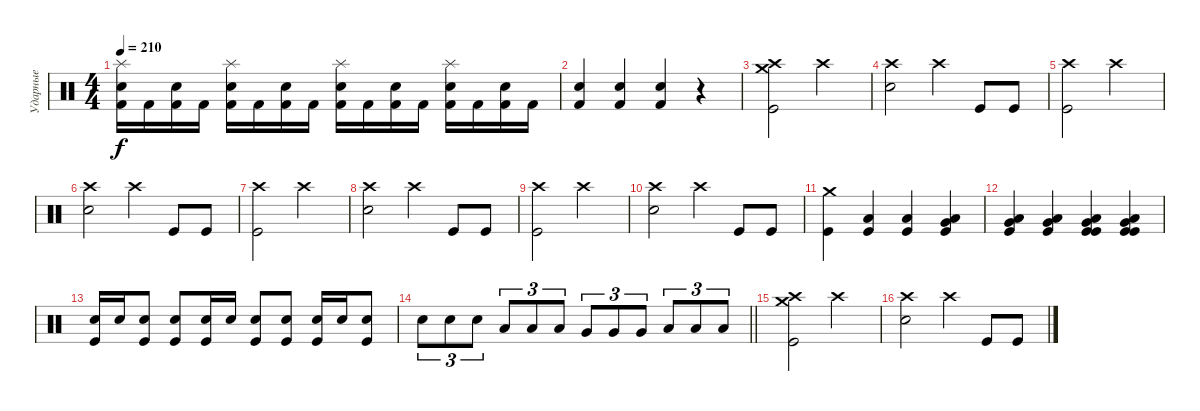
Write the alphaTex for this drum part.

\track ("Ударные" "Ударные") {instrument percussion}
\staff {score}
\articulation defaults
\ts (4 4)
\tempo 210
\clef neutral
\ks c
("Kick (hit) 2" "Electric Snare (hit)" "Splash (hit)").16{dy f} "Kick (hit) 2".16 ("Kick (hit) 2" "Electric Snare (hit)").16 "Kick (hit) 2".16 ("Kick (hit) 2" "Electric Snare (hit)" "Splash (hit)").16 "Kick (hit) 2".16 ("Kick (hit) 2" "Electric Snare (hit)").16 "Kick (hit) 2".16 ("Kick (hit) 2" "Electric Snare (hit)" "Splash (hit)").16 "Kick (hit) 2".16 ("Kick (hit) 2" "Electric Snare (hit)").16 "Kick (hit) 2".16 ("Kick (hit) 2" "Electric Snare (hit)" "Splash (hit)").16 "Kick (hit) 2".16 ("Kick (hit) 2" "Electric Snare (hit)").16 "Kick (hit) 2".16 |
("Kick (hit) 2" "Electric Snare (hit)").4 ("Electric Snare (hit)" "Kick (hit) 2").4 ("Kick (hit) 2" "Electric Snare (hit)").4 r.4 |
("Crash high (hit)" "Crash medium (hit)" "Kick (hit)").2 "Crash high (hit)".2 |
("Crash high (hit)" "Electric Snare (hit)").2 "Crash high (hit)".4 "Kick (hit)".8 "Kick (hit)".8 |
("Crash high (hit)" "Kick (hit)").2 "Crash high (hit)".2 |
("Crash high (hit)" "Electric Snare (hit)").2 "Crash high (hit)".4 "Kick (hit)".8 "Kick (hit)".8 |
("Crash high (hit)" "Kick (hit)").2 "Crash high (hit)".2 |
("Crash high (hit)" "Electric Snare (hit)").2 "Crash high (hit)".4 "Kick (hit)".8 "Kick (hit)".8 |
("Crash high (hit)" "Kick (hit)").2 "Crash high (hit)".2 |
("Crash high (hit)" "Electric Snare (hit)").2 "Crash high (hit)".4 "Kick (hit)".8 "Kick (hit)".8 |
("Crash medium (hit)" "Kick (hit)").4 ("Low Floor Tom (hit)" "Kick (hit)").4 ("Low Floor Tom (hit)" "Kick (hit)").4 ("Very Low Tom (hit)" "Low Floor Tom (hit)" "Kick (hit)").4 |
("Very Low Tom (hit)" "Low Floor Tom (hit)" "Kick (hit)").4 ("Very Low Tom (hit)" "Low Floor Tom (hit)" "Kick (hit)").4 ("Very Low Tom (hit)" "Low Floor Tom (hit)" "Kick (hit)" "Kick (hit)").4 ("Very Low Tom (hit)" "Low Floor Tom (hit)" "Kick (hit)" "Kick (hit)").4 |
("Electric Snare (hit)" "Kick (hit)").16 "Electric Snare (hit)".16 ("Electric Snare (hit)" "Kick (hit)").8 ("Electric Snare (hit)" "Kick (hit)").8 ("Electric Snare (hit)" "Kick (hit)").16 "Electric Snare (hit)".16 ("Electric Snare (hit)" "Kick (hit)").8 ("Electric Snare (hit)" "Kick (hit)").8 ("Electric Snare (hit)" "Kick (hit)").16 "Electric Snare (hit)".16 ("Electric Snare (hit)" "Kick (hit)").8 |
\barLineRight lightlight "Electric Snare (hit)".8{tu (3 2)} "Electric Snare (hit)".8{tu (3 2)} "Electric Snare (hit)".8{tu (3 2)} "Low Tom (hit)".8{tu (3 2)} "Low Tom (hit)".8{tu (3 2)} "Low Tom (hit)".8{tu (3 2)} "Very Low Tom (hit)".8{tu (3 2)} "Very Low Tom (hit)".8{tu (3 2)} "Very Low Tom (hit)".8{tu (3 2)} "Low Floor Tom (hit)".8{tu (3 2)} "Low Floor Tom (hit)".8{tu (3 2)} "Low Floor Tom (hit)".8{tu (3 2)}
|
("Crash high (hit)" "Crash medium (hit)" "Kick (hit)").2 "Crash high (hit)".2 |
("Crash high (hit)" "Electric Snare (hit)").2 "Crash high (hit)".4 "Kick (hit)".8 "Kick (hit)".8
